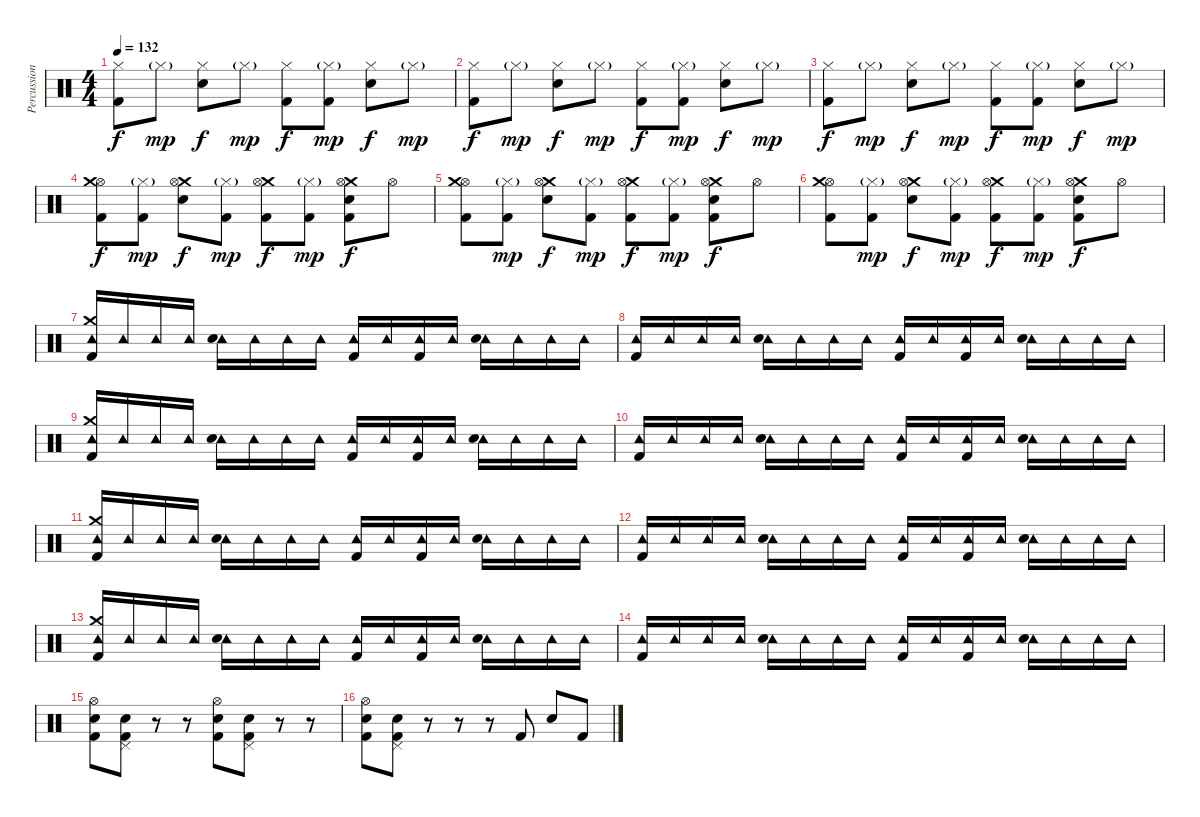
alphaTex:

\track ("Percussion" "Percussion") {instrument percussion}
\staff {score}
\articulation defaults
\ts (4 4)
\tempo 132
\clef neutral
\ks c
("Hi-Hat (closed)" "Kick (hit) 2").8{dy f} "Hi-Hat (closed)"{g}.8{dy mp} ("Hi-Hat (closed)" "Snare (hit) 2").8{dy f} "Hi-Hat (closed)"{g}.8{dy mp} ("Hi-Hat (closed)" "Kick (hit) 2").8{dy f} ("Hi-Hat (closed)"{g} "Kick (hit) 2").8{dy mp} ("Hi-Hat (closed)" "Snare (hit) 2").8{dy f} "Hi-Hat (closed)"{g}.8{dy mp} |
("Hi-Hat (closed)" "Kick (hit) 2").8{dy f} "Hi-Hat (closed)"{g}.8{dy mp} ("Hi-Hat (closed)" "Snare (hit) 2").8{dy f} "Hi-Hat (closed)"{g}.8{dy mp} ("Hi-Hat (closed)" "Kick (hit) 2").8{dy f} ("Hi-Hat (closed)"{g} "Kick (hit) 2").8{dy mp} ("Hi-Hat (closed)" "Snare (hit) 2").8{dy f} "Hi-Hat (closed)"{g}.8{dy mp} |
("Hi-Hat (closed)" "Kick (hit) 2").8{dy f} "Hi-Hat (closed)"{g}.8{dy mp} ("Hi-Hat (closed)" "Snare (hit) 2").8{dy f} "Hi-Hat (closed)"{g}.8{dy mp} ("Hi-Hat (closed)" "Kick (hit) 2").8{dy f} ("Hi-Hat (closed)"{g} "Kick (hit) 2").8{dy mp} ("Hi-Hat (closed)" "Snare (hit) 2").8{dy f} "Hi-Hat (closed)"{g}.8{dy mp} |
("Hi-Hat (open)" "Crash medium (hit)" "Kick (hit) 2").8{dy f} ("Hi-Hat (closed)"{g} "Kick (hit) 2").8{dy mp} ("Crash medium (hit)" "Hi-Hat (open)" "Snare (hit) 2").8{dy f} ("Hi-Hat (closed)"{g} "Kick (hit) 2").8{dy mp} ("Crash medium (hit)" "Hi-Hat (open)" "Kick (hit) 2").8{dy f} ("Hi-Hat (closed)"{g} "Kick (hit) 2").8{dy mp} ("Crash medium (hit)" "Hi-Hat (open)" "Snare (hit) 2" "Kick (hit) 2").8{dy f} "Hi-Hat (open)".8 |
("Hi-Hat (open)" "Crash medium (hit)" "Kick (hit) 2").8 ("Hi-Hat (closed)"{g} "Kick (hit) 2").8{dy mp} ("Crash medium (hit)" "Hi-Hat (open)" "Snare (hit) 2").8{dy f} ("Hi-Hat (closed)"{g} "Kick (hit) 2").8{dy mp} ("Crash medium (hit)" "Hi-Hat (open)" "Kick (hit) 2").8{dy f} ("Hi-Hat (closed)"{g} "Kick (hit) 2").8{dy mp} ("Crash medium (hit)" "Hi-Hat (open)" "Snare (hit) 2" "Kick (hit) 2").8{dy f} "Hi-Hat (open)".8 |
("Hi-Hat (open)" "Crash medium (hit)" "Kick (hit) 2").8 ("Hi-Hat (closed)"{g} "Kick (hit) 2").8{dy mp} ("Crash medium (hit)" "Hi-Hat (open)" "Snare (hit) 2").8{dy f} ("Hi-Hat (closed)"{g} "Kick (hit) 2").8{dy mp} ("Crash medium (hit)" "Hi-Hat (open)" "Kick (hit) 2").8{dy f} ("Hi-Hat (closed)"{g} "Kick (hit) 2").8{dy mp} ("Crash medium (hit)" "Hi-Hat (open)" "Snare (hit) 2" "Kick (hit) 2").8{dy f} "Hi-Hat (open)".8 |
("Crash medium (hit)" "Tambourine (hit)" "Kick (hit) 2").16 "Tambourine (hit)".16 "Tambourine (hit)".16 "Tambourine (hit)".16 ("Tambourine (hit)" "Snare (hit) 2").16 "Tambourine (hit)".16 "Tambourine (hit)".16 "Tambourine (hit)".16 ("Tambourine (hit)" "Kick (hit) 2").16 "Tambourine (hit)".16 ("Tambourine (hit)" "Kick (hit) 2").16 "Tambourine (hit)".16 ("Tambourine (hit)" "Snare (hit) 2").16 "Tambourine (hit)".16 "Tambourine (hit)".16 "Tambourine (hit)".16 |
("Tambourine (hit)" "Kick (hit) 2").16 "Tambourine (hit)".16 "Tambourine (hit)".16 "Tambourine (hit)".16 ("Tambourine (hit)" "Snare (hit) 2").16 "Tambourine (hit)".16 "Tambourine (hit)".16 "Tambourine (hit)".16 ("Tambourine (hit)" "Kick (hit) 2").16 "Tambourine (hit)".16 ("Tambourine (hit)" "Kick (hit) 2").16 "Tambourine (hit)".16 ("Tambourine (hit)" "Snare (hit) 2").16 "Tambourine (hit)".16 "Tambourine (hit)".16 "Tambourine (hit)".16 |
("Crash medium (hit)" "Tambourine (hit)" "Kick (hit) 2").16 "Tambourine (hit)".16 "Tambourine (hit)".16 "Tambourine (hit)".16 ("Tambourine (hit)" "Snare (hit) 2").16 "Tambourine (hit)".16 "Tambourine (hit)".16 "Tambourine (hit)".16 ("Tambourine (hit)" "Kick (hit) 2").16 "Tambourine (hit)".16 ("Tambourine (hit)" "Kick (hit) 2").16 "Tambourine (hit)".16 ("Tambourine (hit)" "Snare (hit) 2").16 "Tambourine (hit)".16 "Tambourine (hit)".16 "Tambourine (hit)".16 |
("Tambourine (hit)" "Kick (hit) 2").16 "Tambourine (hit)".16 "Tambourine (hit)".16 "Tambourine (hit)".16 ("Tambourine (hit)" "Snare (hit) 2").16 "Tambourine (hit)".16 "Tambourine (hit)".16 "Tambourine (hit)".16 ("Tambourine (hit)" "Kick (hit) 2").16 "Tambourine (hit)".16 ("Tambourine (hit)" "Kick (hit) 2").16 "Tambourine (hit)".16 ("Tambourine (hit)" "Snare (hit) 2").16 "Tambourine (hit)".16 "Tambourine (hit)".16 "Tambourine (hit)".16 |
("Crash medium (hit)" "Tambourine (hit)" "Kick (hit) 2").16 "Tambourine (hit)".16 "Tambourine (hit)".16 "Tambourine (hit)".16 ("Tambourine (hit)" "Snare (hit) 2").16 "Tambourine (hit)".16 "Tambourine (hit)".16 "Tambourine (hit)".16 ("Tambourine (hit)" "Kick (hit) 2").16 "Tambourine (hit)".16 ("Tambourine (hit)" "Kick (hit) 2").16 "Tambourine (hit)".16 ("Tambourine (hit)" "Snare (hit) 2").16 "Tambourine (hit)".16 "Tambourine (hit)".16 "Tambourine (hit)".16 |
("Tambourine (hit)" "Kick (hit) 2").16 "Tambourine (hit)".16 "Tambourine (hit)".16 "Tambourine (hit)".16 ("Tambourine (hit)" "Snare (hit) 2").16 "Tambourine (hit)".16 "Tambourine (hit)".16 "Tambourine (hit)".16 ("Tambourine (hit)" "Kick (hit) 2").16 "Tambourine (hit)".16 ("Tambourine (hit)" "Kick (hit) 2").16 "Tambourine (hit)".16 ("Tambourine (hit)" "Snare (hit) 2").16 "Tambourine (hit)".16 "Tambourine (hit)".16 "Tambourine (hit)".16 |
("Crash medium (hit)" "Tambourine (hit)" "Kick (hit) 2").16 "Tambourine (hit)".16 "Tambourine (hit)".16 "Tambourine (hit)".16 ("Tambourine (hit)" "Snare (hit) 2").16 "Tambourine (hit)".16 "Tambourine (hit)".16 "Tambourine (hit)".16 ("Tambourine (hit)" "Kick (hit) 2").16 "Tambourine (hit)".16 ("Tambourine (hit)" "Kick (hit) 2").16 "Tambourine (hit)".16 ("Tambourine (hit)" "Snare (hit) 2").16 "Tambourine (hit)".16 "Tambourine (hit)".16 "Tambourine (hit)".16 |
("Tambourine (hit)" "Kick (hit) 2").16 "Tambourine (hit)".16 "Tambourine (hit)".16 "Tambourine (hit)".16 ("Tambourine (hit)" "Snare (hit) 2").16 "Tambourine (hit)".16 "Tambourine (hit)".16 "Tambourine (hit)".16 ("Tambourine (hit)" "Kick (hit) 2").16 "Tambourine (hit)".16 ("Tambourine (hit)" "Kick (hit) 2").16 "Tambourine (hit)".16 ("Tambourine (hit)" "Snare (hit) 2").16 "Tambourine (hit)".16 "Tambourine (hit)".16 "Tambourine (hit)".16 |
("Hi-Hat (open)" "Snare (hit) 2" "Kick (hit) 2").8 ("Pedal Hi-Hat (hit)" "Snare (hit) 2" "Kick (hit) 2").8 r.8 r.8 ("Hi-Hat (open)" "Snare (hit) 2" "Kick (hit) 2").8 ("Pedal Hi-Hat (hit)" "Snare (hit) 2" "Kick (hit) 2").8 r.8 r.8 |
("Hi-Hat (open)" "Snare (hit) 2" "Kick (hit) 2").8 ("Pedal Hi-Hat (hit)" "Snare (hit) 2" "Kick (hit) 2").8 r.8 r.8 r.8 "Kick (hit) 2".8 "Snare (hit) 2".8 "Kick (hit) 2".8
